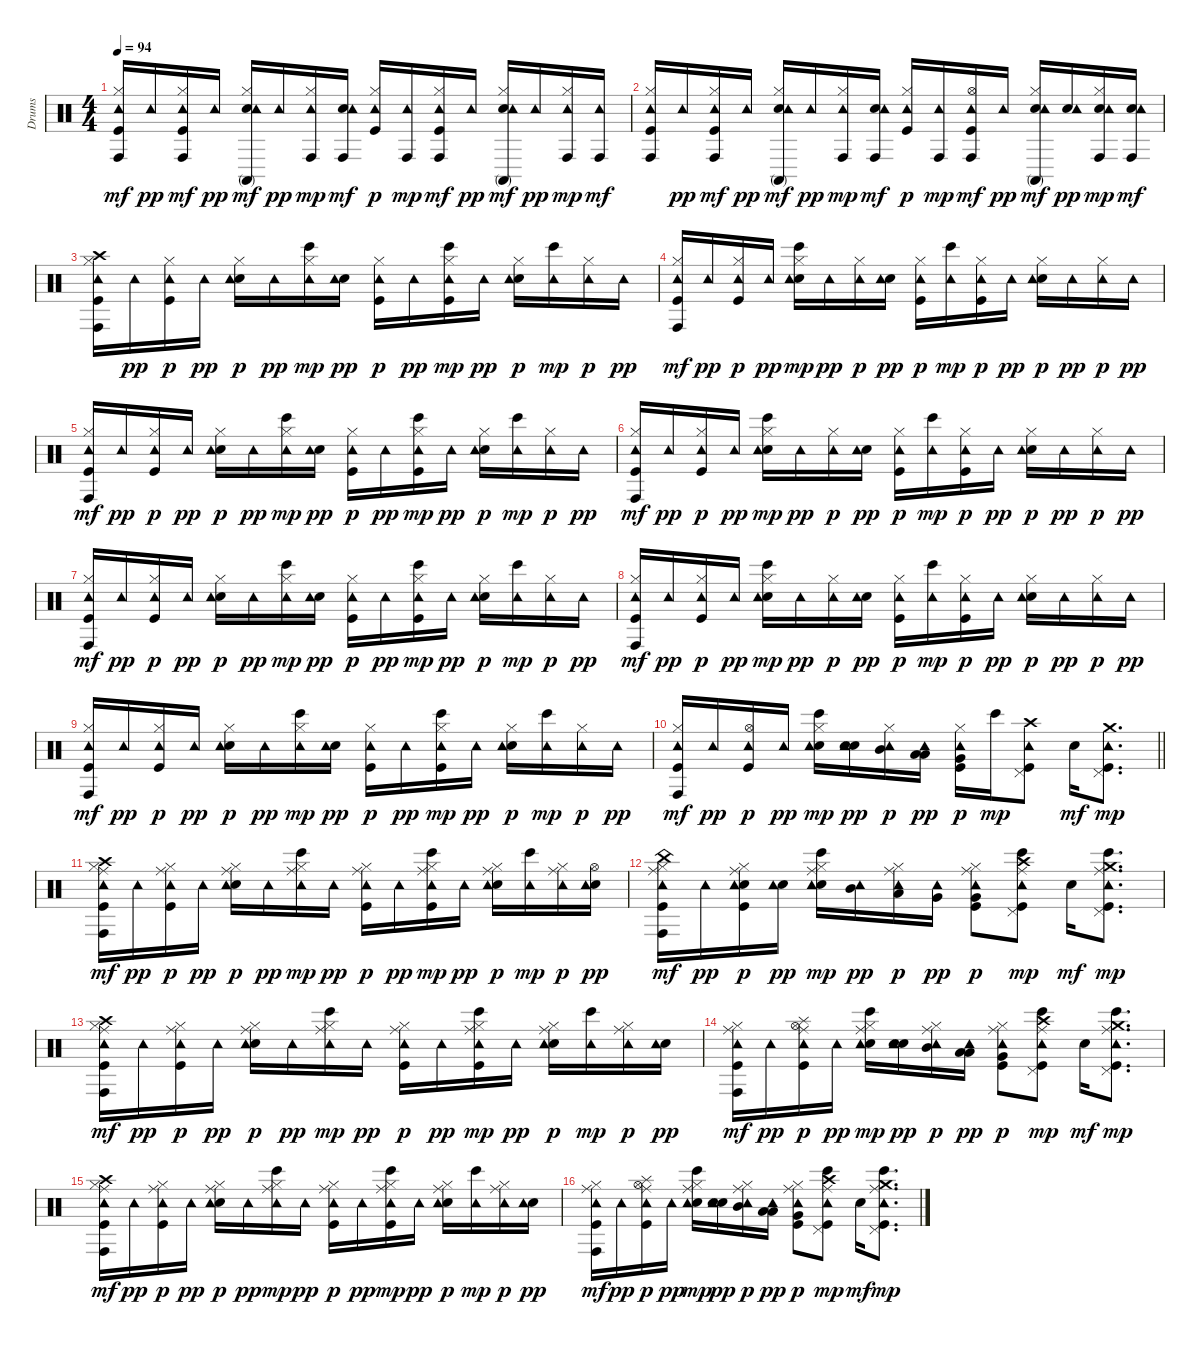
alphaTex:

\track ("Drums" "Drums") {instrument percussion}
\staff {score}
\articulation defaults
\ts (4 4)
\tempo 94
\clef neutral
\ks c
("Kick (hit)" "Hi-Hat (closed)" "Tambourine (hit)" "Conga high (hit)").16{dy mf} "Tambourine (hit)".16{dy pp} ("Kick (hit)" "Hi-Hat (closed)" "Tambourine (hit)" "Conga high (hit)").16{dy mf} "Tambourine (hit)".16{dy pp} ("Electric Snare (hit)" "Hi-Hat (closed)" "Tambourine (hit)" "Conga high (mute)").16{dy mf} "Tambourine (hit)".16{dy pp} ("Hi-Hat (closed)" "Tambourine (hit)" "Conga high (hit)").16{dy mp} ("Electric Snare (hit)" "Tambourine (hit)" "Conga high (hit)").16{dy mf} ("Kick (hit)" "Hi-Hat (closed)" "Tambourine (hit)").16{dy p} ("Tambourine (hit)" "Conga high (hit)").16{dy mp} ("Kick (hit)" "Hi-Hat (closed)" "Tambourine (hit)" "Conga high (hit)").16{dy mf} "Tambourine (hit)".16{dy pp} ("Electric Snare (hit)" "Hi-Hat (closed)" "Tambourine (hit)" "Conga high (mute)").16{dy mf} "Tambourine (hit)".16{dy pp} ("Hi-Hat (closed)" "Tambourine (hit)" "Conga high (hit)").16{dy mp} ("Tambourine (hit)" "Conga high (hit)").16{dy mf} |
("Kick (hit)" "Hi-Hat (closed)" "Tambourine (hit)" "Conga high (hit)").16 "Tambourine (hit)".16{dy pp} ("Kick (hit)" "Hi-Hat (closed)" "Tambourine (hit)" "Conga high (hit)").16{dy mf} "Tambourine (hit)".16{dy pp} ("Electric Snare (hit)" "Hi-Hat (closed)" "Tambourine (hit)" "Conga high (mute)").16{dy mf} "Tambourine (hit)".16{dy pp} ("Hi-Hat (closed)" "Tambourine (hit)" "Conga high (hit)").16{dy mp} ("Electric Snare (hit)" "Tambourine (hit)" "Conga high (hit)").16{dy mf} ("Kick (hit)" "Hi-Hat (closed)" "Tambourine (hit)").16{dy p} ("Tambourine (hit)" "Conga high (hit)").16{dy mp} ("Kick (hit)" "Hi-Hat (open)" "Tambourine (hit)" "Conga high (hit)").16{dy mf} "Tambourine (hit)".16{dy pp} ("Electric Snare (hit)" "Hi-Hat (closed)" "Tambourine (hit)" "Conga high (mute)").16{dy mf} ("Electric Snare (hit)" "Tambourine (hit)").16{dy pp} ("Electric Snare (hit)" "Hi-Hat (closed)" "Tambourine (hit)" "Conga high (hit)").16{dy mp} ("Electric Snare (hit)" "Tambourine (hit)" "Conga high (hit)").16{dy mf} |
("Kick (hit)" "Hi-Hat (closed)" "Crash high (hit)" "Tambourine (hit)" "Conga high (hit)").16 "Tambourine (hit)".16{dy pp} ("Kick (hit)" "Hi-Hat (closed)" "Tambourine (hit)").16{dy p} "Tambourine (hit)".16{dy pp} ("Electric Snare (hit)" "Hi-Hat (closed)" "Tambourine (hit)").16{dy p} "Tambourine (hit)".16{dy pp} ("Hi-Hat (closed)" "Tambourine (hit)" "Bongo High (hit)").16{dy mp} ("Electric Snare (hit)" "Tambourine (hit)").16{dy pp} ("Kick (hit)" "Hi-Hat (closed)" "Tambourine (hit)").16{dy p} "Tambourine (hit)".16{dy pp} ("Kick (hit)" "Hi-Hat (closed)" "Tambourine (hit)" "Bongo High (hit)").16{dy mp} "Tambourine (hit)".16{dy pp} ("Electric Snare (hit)" "Hi-Hat (closed)" "Tambourine (hit)").16{dy p} ("Tambourine (hit)" "Bongo High (hit)").16{dy mp} ("Hi-Hat (closed)" "Tambourine (hit)").16{dy p} "Tambourine (hit)".16{dy pp} |
("Kick (hit)" "Hi-Hat (closed)" "Tambourine (hit)" "Conga high (hit)").16{dy mf} "Tambourine (hit)".16{dy pp} ("Kick (hit)" "Hi-Hat (closed)" "Tambourine (hit)").16{dy p} "Tambourine (hit)".16{dy pp} ("Electric Snare (hit)" "Hi-Hat (closed)" "Tambourine (hit)" "Bongo High (hit)").16{dy mp} "Tambourine (hit)".16{dy pp} ("Hi-Hat (closed)" "Tambourine (hit)").16{dy p} ("Electric Snare (hit)" "Tambourine (hit)").16{dy pp} ("Kick (hit)" "Hi-Hat (closed)" "Tambourine (hit)").16{dy p} ("Tambourine (hit)" "Bongo High (hit)").16{dy mp} ("Kick (hit)" "Hi-Hat (closed)" "Tambourine (hit)").16{dy p} "Tambourine (hit)".16{dy pp} ("Electric Snare (hit)" "Hi-Hat (closed)" "Tambourine (hit)").16{dy p} "Tambourine (hit)".16{dy pp} ("Hi-Hat (closed)" "Tambourine (hit)").16{dy p} "Tambourine (hit)".16{dy pp} |
("Kick (hit)" "Hi-Hat (closed)" "Tambourine (hit)" "Conga high (hit)").16{dy mf} "Tambourine (hit)".16{dy pp} ("Kick (hit)" "Hi-Hat (closed)" "Tambourine (hit)").16{dy p} "Tambourine (hit)".16{dy pp} ("Electric Snare (hit)" "Hi-Hat (closed)" "Tambourine (hit)").16{dy p} "Tambourine (hit)".16{dy pp} ("Hi-Hat (closed)" "Tambourine (hit)" "Bongo High (hit)").16{dy mp} ("Electric Snare (hit)" "Tambourine (hit)").16{dy pp} ("Kick (hit)" "Hi-Hat (closed)" "Tambourine (hit)").16{dy p} "Tambourine (hit)".16{dy pp} ("Kick (hit)" "Hi-Hat (closed)" "Tambourine (hit)" "Bongo High (hit)").16{dy mp} "Tambourine (hit)".16{dy pp} ("Electric Snare (hit)" "Hi-Hat (closed)" "Tambourine (hit)").16{dy p} ("Tambourine (hit)" "Bongo High (hit)").16{dy mp} ("Hi-Hat (closed)" "Tambourine (hit)").16{dy p} "Tambourine (hit)".16{dy pp} |
("Kick (hit)" "Hi-Hat (closed)" "Tambourine (hit)" "Conga high (hit)").16{dy mf} "Tambourine (hit)".16{dy pp} ("Kick (hit)" "Hi-Hat (closed)" "Tambourine (hit)").16{dy p} "Tambourine (hit)".16{dy pp} ("Electric Snare (hit)" "Hi-Hat (closed)" "Tambourine (hit)" "Bongo High (hit)").16{dy mp} "Tambourine (hit)".16{dy pp} ("Hi-Hat (closed)" "Tambourine (hit)").16{dy p} ("Electric Snare (hit)" "Tambourine (hit)").16{dy pp} ("Kick (hit)" "Hi-Hat (closed)" "Tambourine (hit)").16{dy p} ("Tambourine (hit)" "Bongo High (hit)").16{dy mp} ("Kick (hit)" "Hi-Hat (closed)" "Tambourine (hit)").16{dy p} "Tambourine (hit)".16{dy pp} ("Electric Snare (hit)" "Hi-Hat (closed)" "Tambourine (hit)").16{dy p} "Tambourine (hit)".16{dy pp} ("Hi-Hat (closed)" "Tambourine (hit)").16{dy p} "Tambourine (hit)".16{dy pp} |
("Kick (hit)" "Hi-Hat (closed)" "Tambourine (hit)" "Conga high (hit)").16{dy mf} "Tambourine (hit)".16{dy pp} ("Kick (hit)" "Hi-Hat (closed)" "Tambourine (hit)").16{dy p} "Tambourine (hit)".16{dy pp} ("Electric Snare (hit)" "Hi-Hat (closed)" "Tambourine (hit)").16{dy p} "Tambourine (hit)".16{dy pp} ("Hi-Hat (closed)" "Tambourine (hit)" "Bongo High (hit)").16{dy mp} ("Electric Snare (hit)" "Tambourine (hit)").16{dy pp} ("Kick (hit)" "Hi-Hat (closed)" "Tambourine (hit)").16{dy p} "Tambourine (hit)".16{dy pp} ("Kick (hit)" "Hi-Hat (closed)" "Tambourine (hit)" "Bongo High (hit)").16{dy mp} "Tambourine (hit)".16{dy pp} ("Electric Snare (hit)" "Hi-Hat (closed)" "Tambourine (hit)").16{dy p} ("Tambourine (hit)" "Bongo High (hit)").16{dy mp} ("Hi-Hat (closed)" "Tambourine (hit)").16{dy p} "Tambourine (hit)".16{dy pp} |
("Kick (hit)" "Hi-Hat (closed)" "Tambourine (hit)" "Conga high (hit)").16{dy mf} "Tambourine (hit)".16{dy pp} ("Kick (hit)" "Hi-Hat (closed)" "Tambourine (hit)").16{dy p} "Tambourine (hit)".16{dy pp} ("Electric Snare (hit)" "Hi-Hat (closed)" "Tambourine (hit)" "Bongo High (hit)").16{dy mp} "Tambourine (hit)".16{dy pp} ("Hi-Hat (closed)" "Tambourine (hit)").16{dy p} ("Electric Snare (hit)" "Tambourine (hit)").16{dy pp} ("Kick (hit)" "Hi-Hat (closed)" "Tambourine (hit)").16{dy p} ("Tambourine (hit)" "Bongo High (hit)").16{dy mp} ("Kick (hit)" "Hi-Hat (closed)" "Tambourine (hit)").16{dy p} "Tambourine (hit)".16{dy pp} ("Electric Snare (hit)" "Hi-Hat (closed)" "Tambourine (hit)").16{dy p} "Tambourine (hit)".16{dy pp} ("Hi-Hat (closed)" "Tambourine (hit)").16{dy p} "Tambourine (hit)".16{dy pp} |
("Kick (hit)" "Hi-Hat (closed)" "Tambourine (hit)" "Conga high (hit)").16{dy mf} "Tambourine (hit)".16{dy pp} ("Kick (hit)" "Hi-Hat (closed)" "Tambourine (hit)").16{dy p} "Tambourine (hit)".16{dy pp} ("Electric Snare (hit)" "Hi-Hat (closed)" "Tambourine (hit)").16{dy p} "Tambourine (hit)".16{dy pp} ("Hi-Hat (closed)" "Tambourine (hit)" "Bongo High (hit)").16{dy mp} ("Electric Snare (hit)" "Tambourine (hit)").16{dy pp} ("Kick (hit)" "Hi-Hat (closed)" "Tambourine (hit)").16{dy p} "Tambourine (hit)".16{dy pp} ("Kick (hit)" "Hi-Hat (closed)" "Tambourine (hit)" "Bongo High (hit)").16{dy mp} "Tambourine (hit)".16{dy pp} ("Electric Snare (hit)" "Hi-Hat (closed)" "Tambourine (hit)").16{dy p} ("Tambourine (hit)" "Bongo High (hit)").16{dy mp} ("Hi-Hat (closed)" "Tambourine (hit)").16{dy p} "Tambourine (hit)".16{dy pp} |
\barLineRight lightlight
("Kick (hit)" "Hi-Hat (closed)" "Tambourine (hit)" "Conga high (hit)").16{dy mf} "Tambourine (hit)".16{dy pp} ("Kick (hit)" "Hi-Hat (open)" "Tambourine (hit)").16{dy p} "Tambourine (hit)".16{dy pp} ("Electric Snare (hit)" "Hi-Hat (closed)" "Tambourine (hit)" "Bongo High (hit)").16{dy mp} ("Electric Snare (hit)" "Electric Snare (hit)" "Tambourine (hit)").16{dy pp} ("Hi-Hat (closed)" "Mid Tom (hit)" "Tambourine (hit)").16{dy p} ("Low Tom (hit)" "Low Tom (hit)" "Tambourine (hit)").16{dy pp} ("Kick (hit)" "Hi-Hat (closed)" "Very Low Tom (hit)" "Tambourine (hit)").16{dy p} "Bongo High (hit)".16{dy mp} ("Kick (hit)" "Pedal Hi-Hat (hit)" "Crash high (hit)" "Tambourine (hit)").8 "Electric Snare (hit)".16{dy mf} ("Kick (hit)" "Pedal Hi-Hat (hit)" "Tambourine (hit)" "Crash medium (hit)").8{d dy mp} |
("Kick (hit)" "Hi-Hat (closed)" "Crash high (hit)" "Ride (middle)" "Tambourine (hit)" "Conga high (hit)").16{dy mf} "Tambourine (hit)".16{dy pp} ("Kick (hit)" "Hi-Hat (closed)" "Ride (middle)" "Tambourine (hit)").16{dy p} "Tambourine (hit)".16{dy pp} ("Electric Snare (hit)" "Hi-Hat (closed)" "Ride (middle)" "Tambourine (hit)").16{dy p} "Tambourine (hit)".16{dy pp} ("Hi-Hat (closed)" "Ride (middle)" "Tambourine (hit)" "Bongo High (hit)").16{dy mp} "Tambourine (hit)".16{dy pp} ("Kick (hit)" "Hi-Hat (closed)" "Ride (middle)" "Tambourine (hit)").16{dy p} "Tambourine (hit)".16{dy pp} ("Kick (hit)" "Hi-Hat (closed)" "Ride (middle)" "Tambourine (hit)" "Bongo High (hit)").16{dy mp} "Tambourine (hit)".16{dy pp} ("Electric Snare (hit)" "Hi-Hat (closed)" "Ride (middle)" "Tambourine (hit)").16{dy p} ("Tambourine (hit)" "Bongo High (hit)").16{dy mp} ("Hi-Hat (closed)" "Ride (middle)" "Tambourine (hit)").16{dy p} ("Electric Snare (hit)" "Hi-Hat (open)" "Tambourine (hit)").16{dy pp} |
("Kick (hit)" "Hi-Hat (closed)" "Ride (middle)" "China (hit)" "Tambourine (hit)" "Conga high (hit)").16{dy mf} "Tambourine (hit)".16{dy pp} ("Kick (hit)" "Electric Snare (hit)" "Hi-Hat (closed)" "Ride (middle)" "Tambourine (hit)").16{dy p} ("Electric Snare (hit)" "Tambourine (hit)").16{dy pp} ("Electric Snare (hit)" "Hi-Hat (closed)" "Ride (middle)" "Tambourine (hit)" "Bongo High (hit)").16{dy mp} ("Mid Tom (hit)" "Tambourine (hit)").16{dy pp} ("Hi-Hat (closed)" "Low Tom (hit)" "Ride (middle)" "Tambourine (hit)").16{dy p} ("Very Low Tom (hit)" "Tambourine (hit)").16{dy pp} ("Kick (hit)" "Hi-Hat (closed)" "Very Low Tom (hit)" "Ride (middle)" "Tambourine (hit)").8{dy p} ("Kick (hit)" "Pedal Hi-Hat (hit)" "Crash high (hit)" "Ride (middle)" "Tambourine (hit)" "Bongo High (hit)").8{dy mp} "Electric Snare (hit)".16{dy mf} ("Kick (hit)" "Pedal Hi-Hat (hit)" "Ride (middle)" "Tambourine (hit)" "Crash medium (hit)" "Bongo High (hit)").8{d dy mp} |
("Kick (hit)" "Hi-Hat (closed)" "Crash high (hit)" "Ride (middle)" "Tambourine (hit)" "Conga high (hit)").16{dy mf} "Tambourine (hit)".16{dy pp} ("Kick (hit)" "Hi-Hat (closed)" "Ride (middle)" "Tambourine (hit)").16{dy p} "Tambourine (hit)".16{dy pp} ("Electric Snare (hit)" "Hi-Hat (closed)" "Ride (middle)" "Tambourine (hit)").16{dy p} "Tambourine (hit)".16{dy pp} ("Hi-Hat (closed)" "Ride (middle)" "Tambourine (hit)" "Bongo High (hit)").16{dy mp} "Tambourine (hit)".16{dy pp} ("Kick (hit)" "Hi-Hat (closed)" "Ride (middle)" "Tambourine (hit)").16{dy p} "Tambourine (hit)".16{dy pp} ("Kick (hit)" "Hi-Hat (closed)" "Ride (middle)" "Tambourine (hit)" "Bongo High (hit)").16{dy mp} "Tambourine (hit)".16{dy pp} ("Electric Snare (hit)" "Hi-Hat (closed)" "Ride (middle)" "Tambourine (hit)").16{dy p} ("Tambourine (hit)" "Bongo High (hit)").16{dy mp} ("Hi-Hat (closed)" "Ride (middle)" "Tambourine (hit)").16{dy p} ("Electric Snare (hit)" "Tambourine (hit)").16{dy pp} |
("Kick (hit)" "Hi-Hat (closed)" "Ride (middle)" "Tambourine (hit)" "Conga high (hit)").16{dy mf} "Tambourine (hit)".16{dy pp} ("Kick (hit)" "Hi-Hat (open)" "Ride (middle)" "Tambourine (hit)" "Splash (hit)").16{dy p} "Tambourine (hit)".16{dy pp} ("Electric Snare (hit)" "Hi-Hat (closed)" "Ride (middle)" "Tambourine (hit)" "Bongo High (hit)").16{dy mp} ("Electric Snare (hit)" "Electric Snare (hit)" "Tambourine (hit)").16{dy pp} ("Hi-Hat (closed)" "Mid Tom (hit)" "Ride (middle)" "Tambourine (hit)").16{dy p} ("Low Tom (hit)" "Low Tom (hit)" "Tambourine (hit)").16{dy pp} ("Kick (hit)" "Hi-Hat (closed)" "Very Low Tom (hit)" "Ride (middle)" "Tambourine (hit)").8{dy p} ("Kick (hit)" "Pedal Hi-Hat (hit)" "Crash high (hit)" "Ride (middle)" "Tambourine (hit)" "Bongo High (hit)").8{dy mp} "Electric Snare (hit)".16{dy mf} ("Kick (hit)" "Pedal Hi-Hat (hit)" "Ride (middle)" "Tambourine (hit)" "Crash medium (hit)" "Bongo High (hit)").8{d dy mp} |
("Kick (hit)" "Hi-Hat (closed)" "Crash high (hit)" "Ride (middle)" "Tambourine (hit)" "Conga high (hit)").16{dy mf} "Tambourine (hit)".16{dy pp} ("Kick (hit)" "Hi-Hat (closed)" "Ride (middle)" "Tambourine (hit)").16{dy p} "Tambourine (hit)".16{dy pp} ("Electric Snare (hit)" "Hi-Hat (closed)" "Ride (middle)" "Tambourine (hit)").16{dy p} "Tambourine (hit)".16{dy pp} ("Hi-Hat (closed)" "Ride (middle)" "Tambourine (hit)" "Bongo High (hit)").16{dy mp} "Tambourine (hit)".16{dy pp} ("Kick (hit)" "Hi-Hat (closed)" "Ride (middle)" "Tambourine (hit)").16{dy p} "Tambourine (hit)".16{dy pp} ("Kick (hit)" "Hi-Hat (closed)" "Ride (middle)" "Tambourine (hit)" "Bongo High (hit)").16{dy mp} "Tambourine (hit)".16{dy pp} ("Electric Snare (hit)" "Hi-Hat (closed)" "Ride (middle)" "Tambourine (hit)").16{dy p} ("Tambourine (hit)" "Bongo High (hit)").16{dy mp} ("Hi-Hat (closed)" "Ride (middle)" "Tambourine (hit)").16{dy p} ("Electric Snare (hit)" "Tambourine (hit)").16{dy pp} |
("Kick (hit)" "Hi-Hat (closed)" "Ride (middle)" "Tambourine (hit)" "Conga high (hit)").16{dy mf} "Tambourine (hit)".16{dy pp} ("Kick (hit)" "Hi-Hat (open)" "Ride (middle)" "Tambourine (hit)" "Splash (hit)").16{dy p} "Tambourine (hit)".16{dy pp} ("Electric Snare (hit)" "Hi-Hat (closed)" "Ride (middle)" "Tambourine (hit)" "Bongo High (hit)").16{dy mp} ("Electric Snare (hit)" "Electric Snare (hit)" "Tambourine (hit)").16{dy pp} ("Hi-Hat (closed)" "Mid Tom (hit)" "Ride (middle)" "Tambourine (hit)").16{dy p} ("Low Tom (hit)" "Low Tom (hit)" "Tambourine (hit)").16{dy pp} ("Kick (hit)" "Hi-Hat (closed)" "Very Low Tom (hit)" "Ride (middle)" "Tambourine (hit)").8{dy p} ("Kick (hit)" "Pedal Hi-Hat (hit)" "Crash high (hit)" "Ride (middle)" "Tambourine (hit)" "Bongo High (hit)").8{dy mp} "Electric Snare (hit)".16{dy mf} ("Kick (hit)" "Pedal Hi-Hat (hit)" "Ride (middle)" "Tambourine (hit)" "Crash medium (hit)" "Bongo High (hit)").8{d dy mp}
